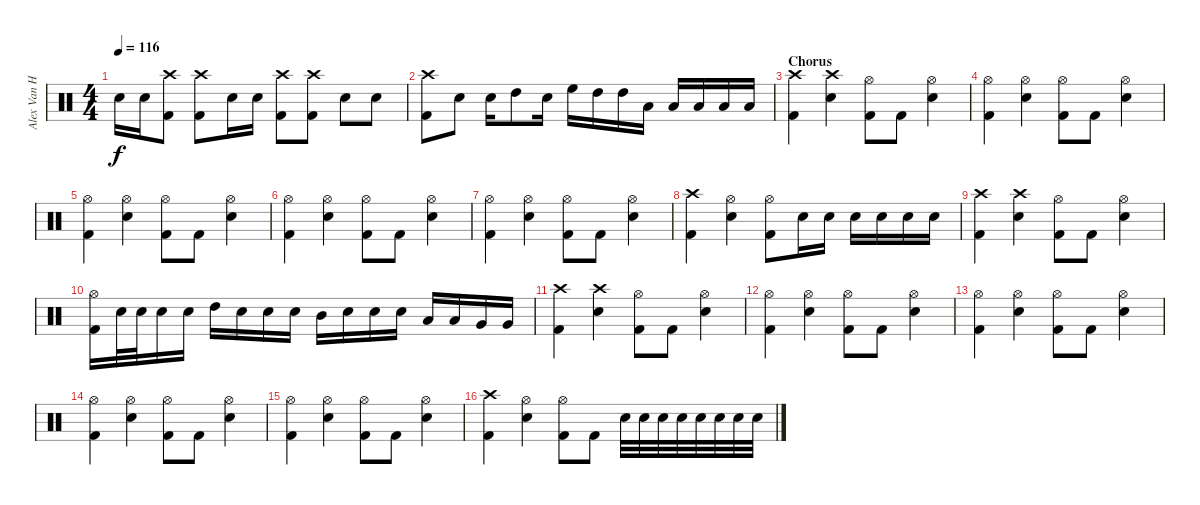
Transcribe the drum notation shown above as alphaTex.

\track ("Alex Van Halen" "Alex Van H") {instrument percussion}
\staff {score}
\articulation defaults
\ts (4 4)
\tempo 116
\clef neutral
\ks c "Electric Snare (hit)".16{dy f} "Electric Snare (hit)".16
("Crash high (hit)" "Kick (hit) 2").8 ("Crash high (hit)" "Kick (hit) 2").8 "Electric Snare (hit)".16 "Electric Snare (hit)".16 ("Crash high (hit)" "Kick (hit) 2").8 ("Crash high (hit)" "Kick (hit) 2").8 "Electric Snare (hit)".8 "Electric Snare (hit)".8 |
("Crash high (hit)" "Kick (hit) 2").8 "Electric Snare (hit)".8 "Electric Snare (hit)".16 "High Tom (hit)".8 "Electric Snare (hit)".16 "High Floor Tom (hit)".16 "High Tom (hit)".16 "High Tom (hit)".16 "Low Tom (hit)".16 "Low Tom (hit)".16 "Low Floor Tom (hit)".16 "Low Floor Tom (hit)".16 "Low Floor Tom (hit)".16 |
\section ("" "Chorus")
("Crash high (hit)" "Kick (hit) 2").4 ("Crash high (hit)" "Electric Snare (hit)").4 ("Hi-Hat (open)" "Kick (hit) 2").8 "Kick (hit) 2".8 ("Hi-Hat (open)" "Electric Snare (hit)").4 |
("Hi-Hat (open)" "Kick (hit) 2").4 ("Hi-Hat (open)" "Electric Snare (hit)").4 ("Hi-Hat (open)" "Kick (hit) 2").8 "Kick (hit) 2".8 ("Hi-Hat (open)" "Electric Snare (hit)").4 |
("Hi-Hat (open)" "Kick (hit) 2").4 ("Hi-Hat (open)" "Electric Snare (hit)").4 ("Hi-Hat (open)" "Kick (hit) 2").8 "Kick (hit) 2".8 ("Hi-Hat (open)" "Electric Snare (hit)").4 |
("Hi-Hat (open)" "Kick (hit) 2").4 ("Hi-Hat (open)" "Electric Snare (hit)").4 ("Hi-Hat (open)" "Kick (hit) 2").8 "Kick (hit) 2".8 ("Hi-Hat (open)" "Electric Snare (hit)").4 |
("Hi-Hat (open)" "Kick (hit) 2").4 ("Hi-Hat (open)" "Electric Snare (hit)").4 ("Hi-Hat (open)" "Kick (hit) 2").8 "Kick (hit) 2".8 ("Hi-Hat (open)" "Electric Snare (hit)").4 |
("Crash high (hit)" "Kick (hit) 2").4 ("Hi-Hat (open)" "Electric Snare (hit)").4 ("Hi-Hat (open)" "Kick (hit) 2").8 "Electric Snare (hit)".16 "Electric Snare (hit)".16 "Electric Snare (hit)".16 "Electric Snare (hit)".16 "Electric Snare (hit)".16 "Electric Snare (hit)".16 |
("Crash high (hit)" "Kick (hit) 2").4 ("Crash high (hit)" "Electric Snare (hit)").4 ("Hi-Hat (open)" "Kick (hit) 2").8 "Kick (hit) 2".8 ("Hi-Hat (open)" "Electric Snare (hit)").4 |
("Hi-Hat (open)" "Kick (hit) 2").16 "Electric Snare (hit)".32 "Electric Snare (hit)".32 "Electric Snare (hit)".16 "Electric Snare (hit)".16 "High Tom (hit)".16 "Electric Snare (hit)".16 "Electric Snare (hit)".16 "Electric Snare (hit)".16 "Mid Tom (hit)".16 "Electric Snare (hit)".16 "Electric Snare (hit)".16 "Electric Snare (hit)".16 "Low Tom (hit)".16 "Low Tom (hit)".16 "Very Low Tom (hit)".16 "Very Low Tom (hit)".16 |
("Crash high (hit)" "Kick (hit) 2").4 ("Crash high (hit)" "Electric Snare (hit)").4 ("Hi-Hat (open)" "Kick (hit) 2").8 "Kick (hit) 2".8 ("Hi-Hat (open)" "Electric Snare (hit)").4 |
("Hi-Hat (open)" "Kick (hit) 2").4 ("Hi-Hat (open)" "Electric Snare (hit)").4 ("Hi-Hat (open)" "Kick (hit) 2").8 "Kick (hit) 2".8 ("Hi-Hat (open)" "Electric Snare (hit)").4 |
("Hi-Hat (open)" "Kick (hit) 2").4 ("Hi-Hat (open)" "Electric Snare (hit)").4 ("Hi-Hat (open)" "Kick (hit) 2").8 "Kick (hit) 2".8 ("Hi-Hat (open)" "Electric Snare (hit)").4 |
("Hi-Hat (open)" "Kick (hit) 2").4 ("Hi-Hat (open)" "Electric Snare (hit)").4 ("Hi-Hat (open)" "Kick (hit) 2").8 "Kick (hit) 2".8 ("Hi-Hat (open)" "Electric Snare (hit)").4 |
("Hi-Hat (open)" "Kick (hit) 2").4 ("Hi-Hat (open)" "Electric Snare (hit)").4 ("Hi-Hat (open)" "Kick (hit) 2").8 "Kick (hit) 2".8 ("Hi-Hat (open)" "Electric Snare (hit)").4 |
("Crash high (hit)" "Kick (hit) 2").4 ("Hi-Hat (open)" "Electric Snare (hit)").4 ("Hi-Hat (open)" "Kick (hit) 2").8 "Kick (hit) 2".8 "Electric Snare (hit)".32 "Electric Snare (hit)".32 "Electric Snare (hit)".32 "Electric Snare (hit)".32 "Electric Snare (hit)".32 "Electric Snare (hit)".32 "Electric Snare (hit)".32 "Electric Snare (hit)".32
